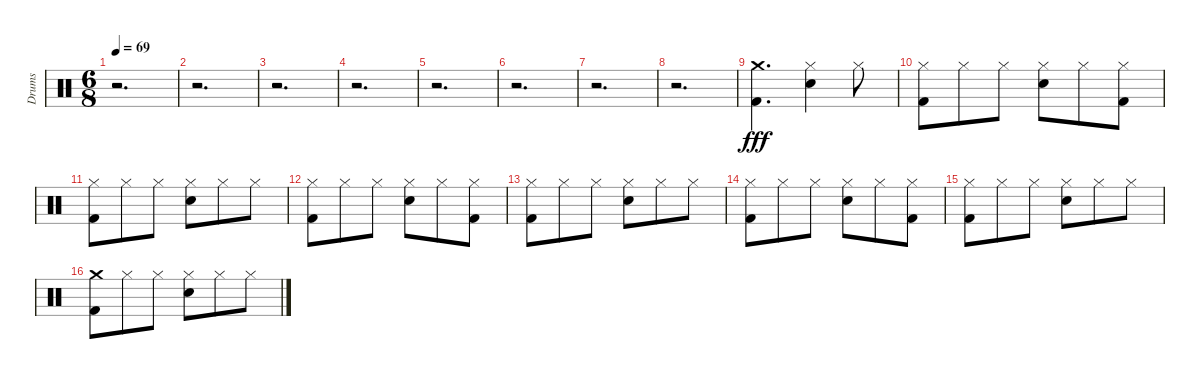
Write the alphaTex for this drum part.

\track ("Drums" "Drums") {instrument percussion}
\staff {score}
\articulation defaults
\ts (6 8)
\tempo 69
\clef neutral
\ks c
r.2{d dy fff} |
r.2{d} |
r.2{d} |
r.2{d} |
r.2{d} |
r.2{d} |
r.2{d} |
r.2{d} |
("Kick (hit) 2" "Crash medium (hit)").4{d} ("Snare (hit) 2" "Hi-Hat (closed)").4 "Hi-Hat (closed)".8 |
("Kick (hit) 2" "Hi-Hat (closed)").8 "Hi-Hat (closed)".8 "Hi-Hat (closed)".8 ("Snare (hit) 2" "Hi-Hat (closed)").8 "Hi-Hat (closed)".8 ("Kick (hit) 2" "Hi-Hat (closed)").8 |
("Kick (hit) 2" "Hi-Hat (closed)").8 "Hi-Hat (closed)".8 "Hi-Hat (closed)".8 ("Snare (hit) 2" "Hi-Hat (closed)").8 "Hi-Hat (closed)".8 "Hi-Hat (closed)".8 |
("Kick (hit) 2" "Hi-Hat (closed)").8 "Hi-Hat (closed)".8 "Hi-Hat (closed)".8 ("Snare (hit) 2" "Hi-Hat (closed)").8 "Hi-Hat (closed)".8 ("Kick (hit) 2" "Hi-Hat (closed)").8 |
("Kick (hit) 2" "Hi-Hat (closed)").8 "Hi-Hat (closed)".8 "Hi-Hat (closed)".8 ("Snare (hit) 2" "Hi-Hat (closed)").8 "Hi-Hat (closed)".8 "Hi-Hat (closed)".8 |
("Kick (hit) 2" "Hi-Hat (closed)").8 "Hi-Hat (closed)".8 "Hi-Hat (closed)".8 ("Snare (hit) 2" "Hi-Hat (closed)").8 "Hi-Hat (closed)".8 ("Kick (hit) 2" "Hi-Hat (closed)").8 |
("Kick (hit) 2" "Hi-Hat (closed)").8 "Hi-Hat (closed)".8 "Hi-Hat (closed)".8 ("Snare (hit) 2" "Hi-Hat (closed)").8 "Hi-Hat (closed)".8 "Hi-Hat (closed)".8 |
("Crash medium (hit)" "Kick (hit) 2").8 "Hi-Hat (closed)".8 "Hi-Hat (closed)".8 ("Snare (hit) 2" "Hi-Hat (closed)").8 "Hi-Hat (closed)".8 "Hi-Hat (closed)".8
